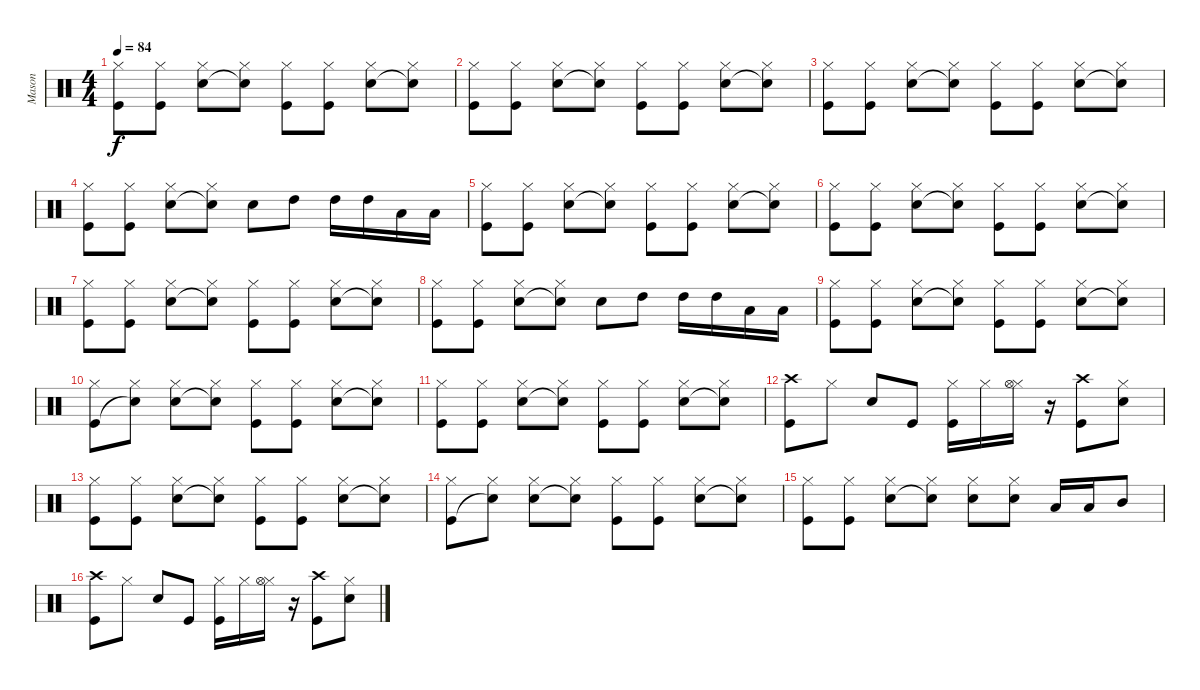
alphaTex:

\track ("Mason" "Mason") {instrument percussion}
\staff {score}
\articulation defaults
\ts (4 4)
\tempo 84
\clef neutral
\ks c
("Kick (hit)" "Hi-Hat (closed)").8{dy f} ("Kick (hit)" "Hi-Hat (closed)").8 ("Snare (hit) 2" "Hi-Hat (closed)").8 ("Snare (hit)"{t} "Hi-Hat (closed)").8 ("Kick (hit)" "Hi-Hat (closed)").8 ("Kick (hit)" "Hi-Hat (closed)").8 ("Snare (hit) 2" "Hi-Hat (closed)").8 ("Snare (hit)"{t} "Hi-Hat (closed)").8 |
("Kick (hit)" "Hi-Hat (closed)").8 ("Kick (hit)" "Hi-Hat (closed)").8 ("Snare (hit) 2" "Hi-Hat (closed)").8 ("Snare (hit)"{t} "Hi-Hat (closed)").8 ("Kick (hit)" "Hi-Hat (closed)").8 ("Kick (hit)" "Hi-Hat (closed)").8 ("Snare (hit) 2" "Hi-Hat (closed)").8 ("Snare (hit)"{t} "Hi-Hat (closed)").8 |
("Kick (hit)" "Hi-Hat (closed)").8 ("Kick (hit)" "Hi-Hat (closed)").8 ("Snare (hit) 2" "Hi-Hat (closed)").8 ("Snare (hit)"{t} "Hi-Hat (closed)").8 ("Kick (hit)" "Hi-Hat (closed)").8 ("Kick (hit)" "Hi-Hat (closed)").8 ("Snare (hit) 2" "Hi-Hat (closed)").8 ("Snare (hit)"{t} "Hi-Hat (closed)").8 |
("Kick (hit)" "Hi-Hat (closed)").8 ("Kick (hit)" "Hi-Hat (closed)").8 ("Snare (hit) 2" "Hi-Hat (closed)").8 ("Snare (hit)"{t} "Hi-Hat (closed)").8 "Snare (hit) 2".8 "High Tom (hit)".8 "High Tom (hit)".16 "High Tom (hit)".16 "Low Floor Tom (hit)".16 "Low Floor Tom (hit)".16 |
("Kick (hit)" "Hi-Hat (closed)").8 ("Kick (hit)" "Hi-Hat (closed)").8 ("Snare (hit) 2" "Hi-Hat (closed)").8 ("Snare (hit)"{t} "Hi-Hat (closed)").8 ("Kick (hit)" "Hi-Hat (closed)").8 ("Kick (hit)" "Hi-Hat (closed)").8 ("Snare (hit) 2" "Hi-Hat (closed)").8 ("Snare (hit)"{t} "Hi-Hat (closed)").8 |
("Kick (hit)" "Hi-Hat (closed)").8 ("Kick (hit)" "Hi-Hat (closed)").8 ("Snare (hit) 2" "Hi-Hat (closed)").8 ("Snare (hit)"{t} "Hi-Hat (closed)").8 ("Kick (hit)" "Hi-Hat (closed)").8 ("Kick (hit)" "Hi-Hat (closed)").8 ("Snare (hit) 2" "Hi-Hat (closed)").8 ("Snare (hit)"{t} "Hi-Hat (closed)").8 |
("Kick (hit)" "Hi-Hat (closed)").8 ("Kick (hit)" "Hi-Hat (closed)").8 ("Snare (hit) 2" "Hi-Hat (closed)").8 ("Snare (hit)"{t} "Hi-Hat (closed)").8 ("Kick (hit)" "Hi-Hat (closed)").8 ("Kick (hit)" "Hi-Hat (closed)").8 ("Snare (hit) 2" "Hi-Hat (closed)").8 ("Snare (hit)"{t} "Hi-Hat (closed)").8 |
("Kick (hit)" "Hi-Hat (closed)").8 ("Kick (hit)" "Hi-Hat (closed)").8 ("Snare (hit) 2" "Hi-Hat (closed)").8 ("Snare (hit)"{t} "Hi-Hat (closed)").8 "Snare (hit) 2".8 "High Tom (hit)".8 "High Tom (hit)".16 "High Tom (hit)".16 "Low Floor Tom (hit)".16 "Low Floor Tom (hit)".16 |
("Kick (hit)" "Hi-Hat (closed)").8 ("Kick (hit)" "Hi-Hat (closed)").8 ("Snare (hit) 2" "Hi-Hat (closed)").8 ("Snare (hit)"{t} "Hi-Hat (closed)").8 ("Kick (hit)" "Hi-Hat (closed)").8 ("Kick (hit)" "Hi-Hat (closed)").8 ("Snare (hit) 2" "Hi-Hat (closed)").8 ("Snare (hit)"{t} "Hi-Hat (closed)").8 |
("Kick (hit)" "Hi-Hat (closed)").8 ("Snare (hit)"{t} "Hi-Hat (closed)").8 ("Snare (hit) 2" "Hi-Hat (closed)").8 ("Snare (hit)"{t} "Hi-Hat (closed)").8 ("Kick (hit)" "Hi-Hat (closed)").8 ("Kick (hit)" "Hi-Hat (closed)").8 ("Snare (hit) 2" "Hi-Hat (closed)").8 ("Snare (hit)"{t} "Hi-Hat (closed)").8 |
("Kick (hit)" "Hi-Hat (closed)").8 ("Kick (hit)" "Hi-Hat (closed)").8 ("Snare (hit) 2" "Hi-Hat (closed)").8 ("Snare (hit)"{t} "Hi-Hat (closed)").8 ("Kick (hit)" "Hi-Hat (closed)").8 ("Kick (hit)" "Hi-Hat (closed)").8 ("Snare (hit) 2" "Hi-Hat (closed)").8 ("Snare (hit)"{t} "Hi-Hat (closed)").8 |
("Kick (hit)" "Crash high (hit)").8 "Hi-Hat (closed)".8 "Snare (hit) 2".8 "Kick (hit)".8 ("Kick (hit)" "Hi-Hat (closed)").16 "Hi-Hat (closed)".16 ("Hi-Hat (closed)" "Hi-Hat (open)").16 r.16 ("Kick (hit)" "Crash high (hit)").8 ("Snare (hit) 2" "Hi-Hat (closed)").8 |
("Kick (hit)" "Hi-Hat (closed)").8 ("Kick (hit)" "Hi-Hat (closed)").8 ("Snare (hit) 2" "Hi-Hat (closed)").8 ("Snare (hit)"{t} "Hi-Hat (closed)").8 ("Kick (hit)" "Hi-Hat (closed)").8 ("Kick (hit)" "Hi-Hat (closed)").8 ("Snare (hit) 2" "Hi-Hat (closed)").8 ("Snare (hit)"{t} "Hi-Hat (closed)").8 |
("Kick (hit)" "Hi-Hat (closed)").8 ("Snare (hit)"{t} "Hi-Hat (closed)").8 ("Snare (hit) 2" "Hi-Hat (closed)").8 ("Snare (hit)"{t} "Hi-Hat (closed)").8 ("Kick (hit)" "Hi-Hat (closed)").8 ("Kick (hit)" "Hi-Hat (closed)").8 ("Snare (hit) 2" "Hi-Hat (closed)").8 ("Snare (hit)"{t} "Hi-Hat (closed)").8 |
("Kick (hit)" "Hi-Hat (closed)").8 ("Kick (hit)" "Hi-Hat (closed)").8 ("Snare (hit) 2" "Hi-Hat (closed)").8 ("Snare (hit)"{t} "Hi-Hat (closed)").8 ("Snare (hit) 2" "Hi-Hat (closed)").8 ("Snare (hit) 2" "Hi-Hat (closed)").8 "Low Tom (hit)".16 "Low Tom (hit)".16 "Mid Tom (hit)".8 |
("Kick (hit)" "Crash high (hit)").8 "Hi-Hat (closed)".8 "Snare (hit) 2".8 "Kick (hit)".8 ("Kick (hit)" "Hi-Hat (closed)").16 "Hi-Hat (closed)".16 ("Hi-Hat (closed)" "Hi-Hat (open)").16 r.16 ("Kick (hit)" "Crash high (hit)").8 ("Snare (hit) 2" "Hi-Hat (closed)").8
